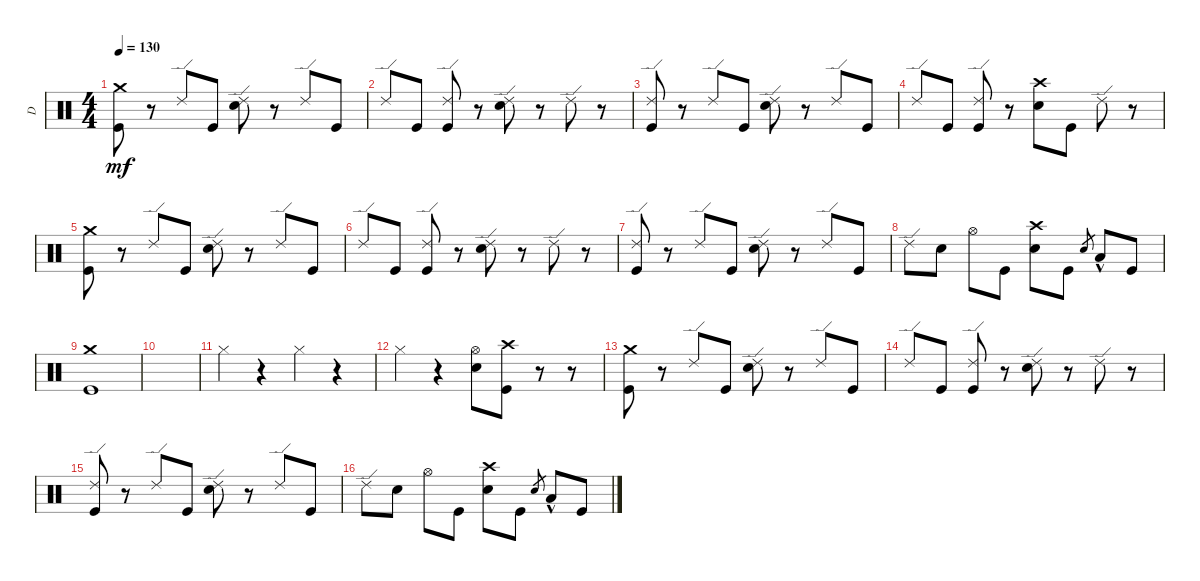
\track ("D" "D") {instrument percussion}
\staff {score}
\articulation defaults
\ts (4 4)
\tempo 130
\clef neutral
\ks c
("Kick (hit)" "Crash medium (hit)").8{dy mf} r.8 "Ride (edge) 2".8 "Kick (hit)".8 ("Ride (edge) 2" "Snare (hit) 2").8 r.8 "Ride (edge) 2".8 "Kick (hit)".8 |
"Ride (edge) 2".8 "Kick (hit)".8 ("Ride (edge) 2" "Kick (hit)").8 r.8 ("Ride (edge) 2" "Snare (hit) 2").8 r.8 "Ride (edge) 2".8 r.8 |
("Ride (edge) 2" "Kick (hit)").8 r.8 "Ride (edge) 2".8 "Kick (hit)".8 ("Ride (edge) 2" "Snare (hit) 2").8 r.8 "Ride (edge) 2".8 "Kick (hit)".8 |
"Ride (edge) 2".8 "Kick (hit)".8 ("Ride (edge) 2" "Kick (hit)").8 r.8 ("Snare (hit) 2" "Crash high (hit)").8 "Kick (hit)".8 "Ride (edge) 2".8 r.8 |
("Kick (hit)" "Crash medium (hit)").8 r.8 "Ride (edge) 2".8 "Kick (hit)".8 ("Ride (edge) 2" "Snare (hit) 2").8 r.8 "Ride (edge) 2".8 "Kick (hit)".8 |
"Ride (edge) 2".8 "Kick (hit)".8 ("Ride (edge) 2" "Kick (hit)").8 r.8 ("Ride (edge) 2" "Snare (hit) 2").8 r.8 "Ride (edge) 2".8 r.8 |
("Ride (edge) 2" "Kick (hit)").8 r.8 "Ride (edge) 2".8 "Kick (hit)".8 ("Ride (edge) 2" "Snare (hit) 2").8 r.8 "Ride (edge) 2".8 "Kick (hit)".8 |
"Ride (edge) 2".8 "Snare (hit) 2".8 "Hi-Hat (open)".8 "Kick (hit)".8 ("Snare (hit) 2" "Crash high (hit)").8 "Kick (hit)".8 "Snare (hit)".8{gr} "Low Floor Tom (hit)"{hac}.8 "Kick (hit)".8 |
("Kick (hit)" "Crash medium (hit)").1 |
|
"Hi-Hat (closed)".4 r.4 "Hi-Hat (closed)".4 r.4 |
"Hi-Hat (closed)".4 r.4 ("Hi-Hat (open)" "Snare (hit) 2").8 ("Kick (hit)" "Crash high (hit)").8 r.8 r.8 |
("Kick (hit)" "Crash medium (hit)").8 r.8 "Ride (edge) 2".8 "Kick (hit)".8 ("Ride (edge) 2" "Snare (hit) 2").8 r.8 "Ride (edge) 2".8 "Kick (hit)".8 |
"Ride (edge) 2".8 "Kick (hit)".8 ("Ride (edge) 2" "Kick (hit)").8 r.8 ("Ride (edge) 2" "Snare (hit) 2").8 r.8 "Ride (edge) 2".8 r.8 |
("Ride (edge) 2" "Kick (hit)").8 r.8 "Ride (edge) 2".8 "Kick (hit)".8 ("Ride (edge) 2" "Snare (hit) 2").8 r.8 "Ride (edge) 2".8 "Kick (hit)".8 |
"Ride (edge) 2".8 "Snare (hit) 2".8 "Hi-Hat (open)".8 "Kick (hit)".8 ("Snare (hit) 2" "Crash high (hit)").8 "Kick (hit)".8 "Snare (hit)".8{gr} "Low Floor Tom (hit)"{hac}.8 "Kick (hit)".8
